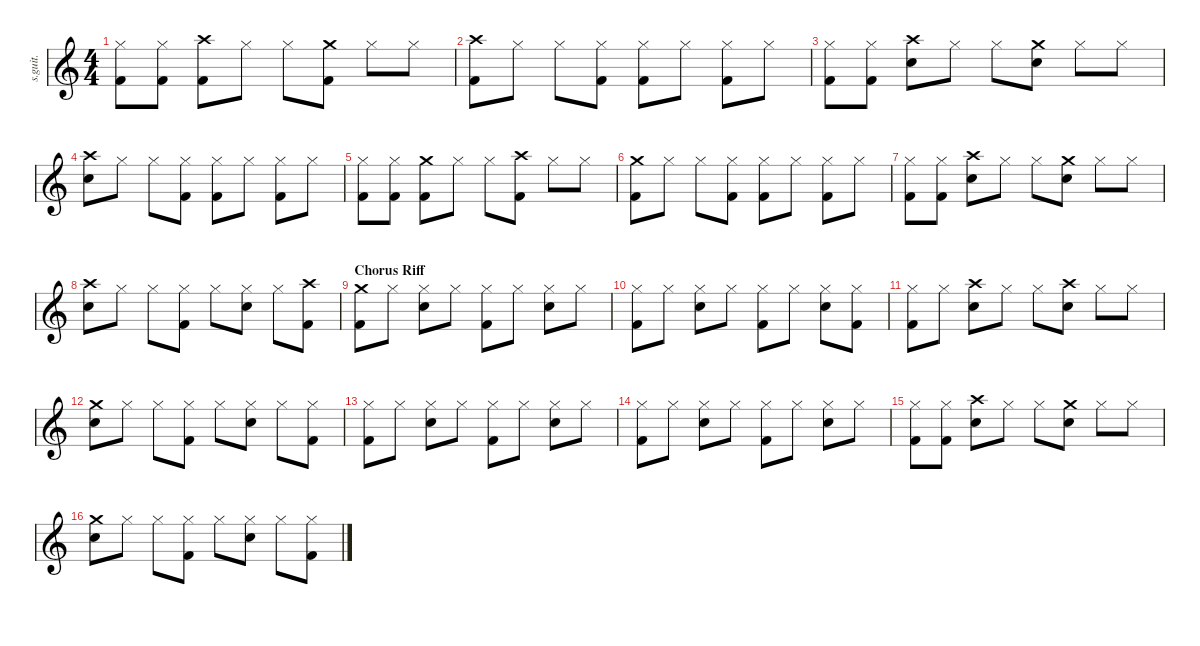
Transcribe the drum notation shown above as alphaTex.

\defaultSystemsLayout 4
\hideDynamics
\bracketExtendMode nobrackets
\track ("Drumkit" "s.guit.") {instrument percussion}
\staff {score}
\articulation defaults
\ts (4 4)
\tempo (130 hide)
\clef g2
\ks c
("Hi-Hat (closed)" "Kick (hit) 2").8{lyrics (0 "") lyrics (1 "") lyrics (2 "") lyrics (3 "") lyrics (4 "") dy f} ("Hi-Hat (closed)" "Kick (hit) 2").8{lyrics (0 "") lyrics (1 "") lyrics (2 "") lyrics (3 "") lyrics (4 "")} ("Crash high (hit)" "Kick (hit) 2").8{lyrics (0 "") lyrics (1 "") lyrics (2 "") lyrics (3 "") lyrics (4 "")} "Hi-Hat (closed)".8{lyrics (0 "") lyrics (1 "") lyrics (2 "") lyrics (3 "") lyrics (4 "")} "Hi-Hat (closed)".8{lyrics (0 "") lyrics (1 "") lyrics (2 "") lyrics (3 "") lyrics (4 "")} ("Crash medium (hit)" "Kick (hit) 2").8{lyrics (0 "") lyrics (1 "") lyrics (2 "") lyrics (3 "") lyrics (4 "")} "Hi-Hat (closed)".8{lyrics (0 "") lyrics (1 "") lyrics (2 "") lyrics (3 "") lyrics (4 "")} "Hi-Hat (closed)".8{lyrics (0 "") lyrics (1 "") lyrics (2 "") lyrics (3 "") lyrics (4 "")} |
("Crash high (hit)" "Kick (hit) 2").8{lyrics (0 "") lyrics (1 "") lyrics (2 "") lyrics (3 "") lyrics (4 "")} "Hi-Hat (closed)".8{lyrics (0 "") lyrics (1 "") lyrics (2 "") lyrics (3 "") lyrics (4 "")} "Hi-Hat (closed)".8{lyrics (0 "") lyrics (1 "") lyrics (2 "") lyrics (3 "") lyrics (4 "")} ("Hi-Hat (closed)" "Kick (hit) 2").8{lyrics (0 "") lyrics (1 "") lyrics (2 "") lyrics (3 "") lyrics (4 "")} ("Hi-Hat (closed)" "Kick (hit) 2").8{lyrics (0 "") lyrics (1 "") lyrics (2 "") lyrics (3 "") lyrics (4 "")} "Hi-Hat (closed)".8{lyrics (0 "") lyrics (1 "") lyrics (2 "") lyrics (3 "") lyrics (4 "")} ("Hi-Hat (closed)" "Kick (hit) 2").8{lyrics (0 "") lyrics (1 "") lyrics (2 "") lyrics (3 "") lyrics (4 "")} "Hi-Hat (closed)".8{lyrics (0 "") lyrics (1 "") lyrics (2 "") lyrics (3 "") lyrics (4 "")} |
("Hi-Hat (closed)" "Kick (hit) 2").8{lyrics (0 "") lyrics (1 "") lyrics (2 "") lyrics (3 "") lyrics (4 "")} ("Hi-Hat (closed)" "Kick (hit) 2").8{lyrics (0 "") lyrics (1 "") lyrics (2 "") lyrics (3 "") lyrics (4 "")} ("Crash high (hit)" "Snare (hit) 2").8{lyrics (0 "") lyrics (1 "") lyrics (2 "") lyrics (3 "") lyrics (4 "")} "Hi-Hat (closed)".8{lyrics (0 "") lyrics (1 "") lyrics (2 "") lyrics (3 "") lyrics (4 "")} "Hi-Hat (closed)".8{lyrics (0 "") lyrics (1 "") lyrics (2 "") lyrics (3 "") lyrics (4 "")} ("Crash medium (hit)" "Snare (hit) 2").8{lyrics (0 "") lyrics (1 "") lyrics (2 "") lyrics (3 "") lyrics (4 "")} "Hi-Hat (closed)".8{lyrics (0 "") lyrics (1 "") lyrics (2 "") lyrics (3 "") lyrics (4 "")} "Hi-Hat (closed)".8{lyrics (0 "") lyrics (1 "") lyrics (2 "") lyrics (3 "") lyrics (4 "")} |
("Crash high (hit)" "Snare (hit) 2").8{lyrics (0 "") lyrics (1 "") lyrics (2 "") lyrics (3 "") lyrics (4 "")} "Hi-Hat (closed)".8{lyrics (0 "") lyrics (1 "") lyrics (2 "") lyrics (3 "") lyrics (4 "")} "Hi-Hat (closed)".8{lyrics (0 "") lyrics (1 "") lyrics (2 "") lyrics (3 "") lyrics (4 "")} ("Hi-Hat (closed)" "Kick (hit) 2").8{lyrics (0 "") lyrics (1 "") lyrics (2 "") lyrics (3 "") lyrics (4 "")} ("Hi-Hat (closed)" "Kick (hit) 2").8{lyrics (0 "") lyrics (1 "") lyrics (2 "") lyrics (3 "") lyrics (4 "")} "Hi-Hat (closed)".8{lyrics (0 "") lyrics (1 "") lyrics (2 "") lyrics (3 "") lyrics (4 "")} ("Hi-Hat (closed)" "Kick (hit) 2").8{lyrics (0 "") lyrics (1 "") lyrics (2 "") lyrics (3 "") lyrics (4 "")} "Hi-Hat (closed)".8{lyrics (0 "") lyrics (1 "") lyrics (2 "") lyrics (3 "") lyrics (4 "")} |
("Hi-Hat (closed)" "Kick (hit) 2").8{lyrics (0 "") lyrics (1 "") lyrics (2 "") lyrics (3 "") lyrics (4 "")} ("Hi-Hat (closed)" "Kick (hit) 2").8{lyrics (0 "") lyrics (1 "") lyrics (2 "") lyrics (3 "") lyrics (4 "")} ("Crash medium (hit)" "Kick (hit) 2").8{lyrics (0 "") lyrics (1 "") lyrics (2 "") lyrics (3 "") lyrics (4 "")} "Hi-Hat (closed)".8{lyrics (0 "") lyrics (1 "") lyrics (2 "") lyrics (3 "") lyrics (4 "")} "Hi-Hat (closed)".8{lyrics (0 "") lyrics (1 "") lyrics (2 "") lyrics (3 "") lyrics (4 "")} ("Crash high (hit)" "Kick (hit) 2").8{lyrics (0 "") lyrics (1 "") lyrics (2 "") lyrics (3 "") lyrics (4 "")} "Hi-Hat (closed)".8{lyrics (0 "") lyrics (1 "") lyrics (2 "") lyrics (3 "") lyrics (4 "")} "Hi-Hat (closed)".8{lyrics (0 "") lyrics (1 "") lyrics (2 "") lyrics (3 "") lyrics (4 "")} |
("Crash medium (hit)" "Kick (hit) 2").8{lyrics (0 "") lyrics (1 "") lyrics (2 "") lyrics (3 "") lyrics (4 "")} "Hi-Hat (closed)".8{lyrics (0 "") lyrics (1 "") lyrics (2 "") lyrics (3 "") lyrics (4 "")} "Hi-Hat (closed)".8{lyrics (0 "") lyrics (1 "") lyrics (2 "") lyrics (3 "") lyrics (4 "")} ("Hi-Hat (closed)" "Kick (hit) 2").8{lyrics (0 "") lyrics (1 "") lyrics (2 "") lyrics (3 "") lyrics (4 "")} ("Hi-Hat (closed)" "Kick (hit) 2").8{lyrics (0 "") lyrics (1 "") lyrics (2 "") lyrics (3 "") lyrics (4 "")} "Hi-Hat (closed)".8{lyrics (0 "") lyrics (1 "") lyrics (2 "") lyrics (3 "") lyrics (4 "")} ("Hi-Hat (closed)" "Kick (hit) 2").8{lyrics (0 "") lyrics (1 "") lyrics (2 "") lyrics (3 "") lyrics (4 "")} "Hi-Hat (closed)".8{lyrics (0 "") lyrics (1 "") lyrics (2 "") lyrics (3 "") lyrics (4 "")} |
("Hi-Hat (closed)" "Kick (hit) 2").8{lyrics (0 "") lyrics (1 "") lyrics (2 "") lyrics (3 "") lyrics (4 "")} ("Hi-Hat (closed)" "Kick (hit) 2").8{lyrics (0 "") lyrics (1 "") lyrics (2 "") lyrics (3 "") lyrics (4 "")} ("Crash high (hit)" "Snare (hit) 2").8{lyrics (0 "") lyrics (1 "") lyrics (2 "") lyrics (3 "") lyrics (4 "")} "Hi-Hat (closed)".8{lyrics (0 "") lyrics (1 "") lyrics (2 "") lyrics (3 "") lyrics (4 "")} "Hi-Hat (closed)".8{lyrics (0 "") lyrics (1 "") lyrics (2 "") lyrics (3 "") lyrics (4 "")} ("Crash medium (hit)" "Snare (hit) 2").8{lyrics (0 "") lyrics (1 "") lyrics (2 "") lyrics (3 "") lyrics (4 "")} "Hi-Hat (closed)".8{lyrics (0 "") lyrics (1 "") lyrics (2 "") lyrics (3 "") lyrics (4 "")} "Hi-Hat (closed)".8{lyrics (0 "") lyrics (1 "") lyrics (2 "") lyrics (3 "") lyrics (4 "")} |
("Crash high (hit)" "Snare (hit) 2").8{lyrics (0 "") lyrics (1 "") lyrics (2 "") lyrics (3 "") lyrics (4 "")} "Hi-Hat (closed)".8{lyrics (0 "") lyrics (1 "") lyrics (2 "") lyrics (3 "") lyrics (4 "")} "Hi-Hat (closed)".8{lyrics (0 "") lyrics (1 "") lyrics (2 "") lyrics (3 "") lyrics (4 "")} ("Hi-Hat (closed)" "Kick (hit) 2").8{lyrics (0 "") lyrics (1 "") lyrics (2 "") lyrics (3 "") lyrics (4 "")} "Hi-Hat (closed)".8{lyrics (0 "") lyrics (1 "") lyrics (2 "") lyrics (3 "") lyrics (4 "")} ("Hi-Hat (closed)" "Snare (hit) 2").8{lyrics (0 "") lyrics (1 "") lyrics (2 "") lyrics (3 "") lyrics (4 "")} "Hi-Hat (closed)".8{lyrics (0 "") lyrics (1 "") lyrics (2 "") lyrics (3 "") lyrics (4 "")} ("Crash high (hit)" "Kick (hit) 2").8{lyrics (0 "") lyrics (1 "") lyrics (2 "") lyrics (3 "") lyrics (4 "")} |
\section ("" "Chorus Riff")
("Crash medium (hit)" "Kick (hit) 2").8{lyrics (0 "") lyrics (1 "") lyrics (2 "") lyrics (3 "") lyrics (4 "")} "Hi-Hat (closed)".8{lyrics (0 "") lyrics (1 "") lyrics (2 "") lyrics (3 "") lyrics (4 "")} ("Hi-Hat (closed)" "Snare (hit) 2").8{lyrics (0 "") lyrics (1 "") lyrics (2 "") lyrics (3 "") lyrics (4 "")} "Hi-Hat (closed)".8{lyrics (0 "") lyrics (1 "") lyrics (2 "") lyrics (3 "") lyrics (4 "")} ("Hi-Hat (closed)" "Kick (hit) 2").8{lyrics (0 "") lyrics (1 "") lyrics (2 "") lyrics (3 "") lyrics (4 "")} "Hi-Hat (closed)".8{lyrics (0 "") lyrics (1 "") lyrics (2 "") lyrics (3 "") lyrics (4 "")} ("Hi-Hat (closed)" "Snare (hit) 2").8{lyrics (0 "") lyrics (1 "") lyrics (2 "") lyrics (3 "") lyrics (4 "")} "Hi-Hat (closed)".8{lyrics (0 "") lyrics (1 "") lyrics (2 "") lyrics (3 "") lyrics (4 "")} |
("Hi-Hat (closed)" "Kick (hit) 2").8{lyrics (0 "") lyrics (1 "") lyrics (2 "") lyrics (3 "") lyrics (4 "")} "Hi-Hat (closed)".8{lyrics (0 "") lyrics (1 "") lyrics (2 "") lyrics (3 "") lyrics (4 "")} ("Hi-Hat (closed)" "Snare (hit) 2").8{lyrics (0 "") lyrics (1 "") lyrics (2 "") lyrics (3 "") lyrics (4 "")} "Hi-Hat (closed)".8{lyrics (0 "") lyrics (1 "") lyrics (2 "") lyrics (3 "") lyrics (4 "")} ("Hi-Hat (closed)" "Kick (hit) 2").8{lyrics (0 "") lyrics (1 "") lyrics (2 "") lyrics (3 "") lyrics (4 "")} "Hi-Hat (closed)".8{lyrics (0 "") lyrics (1 "") lyrics (2 "") lyrics (3 "") lyrics (4 "")} ("Hi-Hat (closed)" "Snare (hit) 2").8{lyrics (0 "") lyrics (1 "") lyrics (2 "") lyrics (3 "") lyrics (4 "")} ("Hi-Hat (closed)" "Kick (hit) 2").8{lyrics (0 "") lyrics (1 "") lyrics (2 "") lyrics (3 "") lyrics (4 "")} |
("Hi-Hat (closed)" "Kick (hit) 2").8{lyrics (0 "") lyrics (1 "") lyrics (2 "") lyrics (3 "") lyrics (4 "")} "Hi-Hat (closed)".8{lyrics (0 "") lyrics (1 "") lyrics (2 "") lyrics (3 "") lyrics (4 "")} ("Crash high (hit)" "Snare (hit) 2").8{lyrics (0 "") lyrics (1 "") lyrics (2 "") lyrics (3 "") lyrics (4 "")} "Hi-Hat (closed)".8{lyrics (0 "") lyrics (1 "") lyrics (2 "") lyrics (3 "") lyrics (4 "")} "Hi-Hat (closed)".8{lyrics (0 "") lyrics (1 "") lyrics (2 "") lyrics (3 "") lyrics (4 "")} ("Crash high (hit)" "Snare (hit) 2").8{lyrics (0 "") lyrics (1 "") lyrics (2 "") lyrics (3 "") lyrics (4 "")} "Hi-Hat (closed)".8{lyrics (0 "") lyrics (1 "") lyrics (2 "") lyrics (3 "") lyrics (4 "")} "Hi-Hat (closed)".8{lyrics (0 "") lyrics (1 "") lyrics (2 "") lyrics (3 "") lyrics (4 "")} |
("Crash medium (hit)" "Snare (hit) 2").8{lyrics (0 "") lyrics (1 "") lyrics (2 "") lyrics (3 "") lyrics (4 "")} "Hi-Hat (closed)".8{lyrics (0 "") lyrics (1 "") lyrics (2 "") lyrics (3 "") lyrics (4 "")} "Hi-Hat (closed)".8{lyrics (0 "") lyrics (1 "") lyrics (2 "") lyrics (3 "") lyrics (4 "")} ("Hi-Hat (closed)" "Kick (hit) 2").8{lyrics (0 "") lyrics (1 "") lyrics (2 "") lyrics (3 "") lyrics (4 "")} "Hi-Hat (closed)".8{lyrics (0 "") lyrics (1 "") lyrics (2 "") lyrics (3 "") lyrics (4 "")} ("Hi-Hat (closed)" "Snare (hit) 2").8{lyrics (0 "") lyrics (1 "") lyrics (2 "") lyrics (3 "") lyrics (4 "")} "Hi-Hat (closed)".8{lyrics (0 "") lyrics (1 "") lyrics (2 "") lyrics (3 "") lyrics (4 "")} ("Hi-Hat (closed)" "Kick (hit) 2").8{lyrics (0 "") lyrics (1 "") lyrics (2 "") lyrics (3 "") lyrics (4 "")} |
("Hi-Hat (closed)" "Kick (hit) 2").8{lyrics (0 "") lyrics (1 "") lyrics (2 "") lyrics (3 "") lyrics (4 "")} "Hi-Hat (closed)".8{lyrics (0 "") lyrics (1 "") lyrics (2 "") lyrics (3 "") lyrics (4 "")} ("Hi-Hat (closed)" "Snare (hit) 2").8{lyrics (0 "") lyrics (1 "") lyrics (2 "") lyrics (3 "") lyrics (4 "")} "Hi-Hat (closed)".8{lyrics (0 "") lyrics (1 "") lyrics (2 "") lyrics (3 "") lyrics (4 "")} ("Hi-Hat (closed)" "Kick (hit) 2").8{lyrics (0 "") lyrics (1 "") lyrics (2 "") lyrics (3 "") lyrics (4 "")} "Hi-Hat (closed)".8{lyrics (0 "") lyrics (1 "") lyrics (2 "") lyrics (3 "") lyrics (4 "")} ("Hi-Hat (closed)" "Snare (hit) 2").8{lyrics (0 "") lyrics (1 "") lyrics (2 "") lyrics (3 "") lyrics (4 "")} "Hi-Hat (closed)".8{lyrics (0 "") lyrics (1 "") lyrics (2 "") lyrics (3 "") lyrics (4 "")} |
("Hi-Hat (closed)" "Kick (hit) 2").8{lyrics (0 "") lyrics (1 "") lyrics (2 "") lyrics (3 "") lyrics (4 "")} "Hi-Hat (closed)".8{lyrics (0 "") lyrics (1 "") lyrics (2 "") lyrics (3 "") lyrics (4 "")} ("Hi-Hat (closed)" "Snare (hit) 2").8{lyrics (0 "") lyrics (1 "") lyrics (2 "") lyrics (3 "") lyrics (4 "")} "Hi-Hat (closed)".8{lyrics (0 "") lyrics (1 "") lyrics (2 "") lyrics (3 "") lyrics (4 "")} ("Hi-Hat (closed)" "Kick (hit) 2").8{lyrics (0 "") lyrics (1 "") lyrics (2 "") lyrics (3 "") lyrics (4 "")} "Hi-Hat (closed)".8{lyrics (0 "") lyrics (1 "") lyrics (2 "") lyrics (3 "") lyrics (4 "")} ("Hi-Hat (closed)" "Snare (hit) 2").8{lyrics (0 "") lyrics (1 "") lyrics (2 "") lyrics (3 "") lyrics (4 "")} "Hi-Hat (closed)".8{lyrics (0 "") lyrics (1 "") lyrics (2 "") lyrics (3 "") lyrics (4 "")} |
("Hi-Hat (closed)" "Kick (hit) 2").8{lyrics (0 "") lyrics (1 "") lyrics (2 "") lyrics (3 "") lyrics (4 "")} ("Hi-Hat (closed)" "Kick (hit) 2").8{lyrics (0 "") lyrics (1 "") lyrics (2 "") lyrics (3 "") lyrics (4 "")} ("Crash high (hit)" "Snare (hit) 2").8{lyrics (0 "") lyrics (1 "") lyrics (2 "") lyrics (3 "") lyrics (4 "")} "Hi-Hat (closed)".8{lyrics (0 "") lyrics (1 "") lyrics (2 "") lyrics (3 "") lyrics (4 "")} "Hi-Hat (closed)".8{lyrics (0 "") lyrics (1 "") lyrics (2 "") lyrics (3 "") lyrics (4 "")} ("Crash medium (hit)" "Snare (hit) 2").8{lyrics (0 "") lyrics (1 "") lyrics (2 "") lyrics (3 "") lyrics (4 "")} "Hi-Hat (closed)".8{lyrics (0 "") lyrics (1 "") lyrics (2 "") lyrics (3 "") lyrics (4 "")} "Hi-Hat (closed)".8{lyrics (0 "") lyrics (1 "") lyrics (2 "") lyrics (3 "") lyrics (4 "")} |
("Crash medium (hit)" "Snare (hit) 2").8{lyrics (0 "") lyrics (1 "") lyrics (2 "") lyrics (3 "") lyrics (4 "")} "Hi-Hat (closed)".8{lyrics (0 "") lyrics (1 "") lyrics (2 "") lyrics (3 "") lyrics (4 "")} "Hi-Hat (closed)".8{lyrics (0 "") lyrics (1 "") lyrics (2 "") lyrics (3 "") lyrics (4 "")} ("Hi-Hat (closed)" "Kick (hit) 2").8{lyrics (0 "") lyrics (1 "") lyrics (2 "") lyrics (3 "") lyrics (4 "")} "Hi-Hat (closed)".8{lyrics (0 "") lyrics (1 "") lyrics (2 "") lyrics (3 "") lyrics (4 "")} ("Hi-Hat (closed)" "Snare (hit) 2").8{lyrics (0 "") lyrics (1 "") lyrics (2 "") lyrics (3 "") lyrics (4 "")} "Hi-Hat (closed)".8{lyrics (0 "") lyrics (1 "") lyrics (2 "") lyrics (3 "") lyrics (4 "")} ("Hi-Hat (closed)" "Kick (hit) 2").8{lyrics (0 "") lyrics (1 "") lyrics (2 "") lyrics (3 "") lyrics (4 "")}
